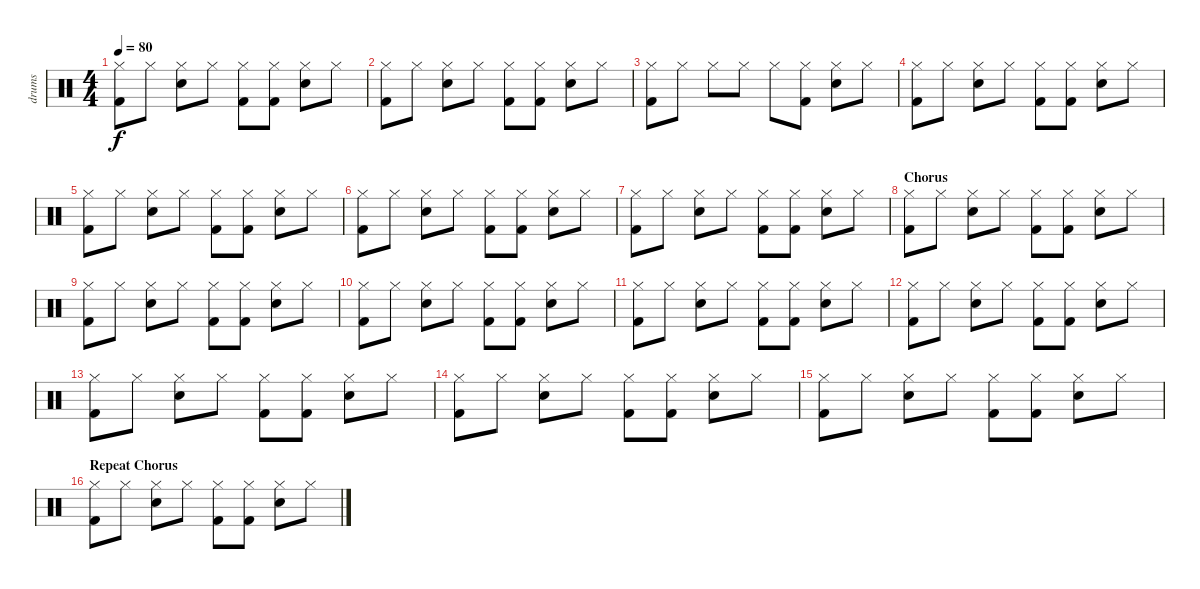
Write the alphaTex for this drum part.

\track ("drums" "drums") {instrument percussion}
\staff {score}
\articulation defaults
\ts (4 4)
\tempo 80
\clef neutral
\ks c
("Hi-Hat (closed)" "Kick (hit) 2").8{dy f} "Hi-Hat (closed)".8 ("Hi-Hat (closed)" "Electric Snare (hit)").8 "Hi-Hat (closed)".8 ("Hi-Hat (closed)" "Kick (hit) 2").8 ("Hi-Hat (closed)" "Kick (hit) 2").8 ("Hi-Hat (closed)" "Electric Snare (hit)").8 "Hi-Hat (closed)".8 |
("Hi-Hat (closed)" "Kick (hit) 2").8 "Hi-Hat (closed)".8 ("Hi-Hat (closed)" "Electric Snare (hit)").8 "Hi-Hat (closed)".8 ("Hi-Hat (closed)" "Kick (hit) 2").8 ("Hi-Hat (closed)" "Kick (hit) 2").8 ("Hi-Hat (closed)" "Electric Snare (hit)").8 "Hi-Hat (closed)".8 |
("Hi-Hat (closed)" "Kick (hit) 2").8 "Hi-Hat (closed)".8 "Hi-Hat (closed)".8 "Hi-Hat (closed)".8 "Hi-Hat (closed)".8 ("Hi-Hat (closed)" "Kick (hit) 2").8 ("Hi-Hat (closed)" "Electric Snare (hit)").8 "Hi-Hat (closed)".8 |
("Hi-Hat (closed)" "Kick (hit) 2").8 "Hi-Hat (closed)".8 ("Hi-Hat (closed)" "Electric Snare (hit)").8 "Hi-Hat (closed)".8 ("Hi-Hat (closed)" "Kick (hit) 2").8 ("Hi-Hat (closed)" "Kick (hit) 2").8 ("Hi-Hat (closed)" "Electric Snare (hit)").8 "Hi-Hat (closed)".8 |
("Hi-Hat (closed)" "Kick (hit) 2").8 "Hi-Hat (closed)".8 ("Hi-Hat (closed)" "Electric Snare (hit)").8 "Hi-Hat (closed)".8 ("Hi-Hat (closed)" "Kick (hit) 2").8 ("Hi-Hat (closed)" "Kick (hit) 2").8 ("Hi-Hat (closed)" "Electric Snare (hit)").8 "Hi-Hat (closed)".8 |
("Hi-Hat (closed)" "Kick (hit) 2").8 "Hi-Hat (closed)".8 ("Hi-Hat (closed)" "Electric Snare (hit)").8 "Hi-Hat (closed)".8 ("Hi-Hat (closed)" "Kick (hit) 2").8 ("Hi-Hat (closed)" "Kick (hit) 2").8 ("Hi-Hat (closed)" "Electric Snare (hit)").8 "Hi-Hat (closed)".8 |
("Hi-Hat (closed)" "Kick (hit) 2").8 "Hi-Hat (closed)".8 ("Hi-Hat (closed)" "Electric Snare (hit)").8 "Hi-Hat (closed)".8 ("Hi-Hat (closed)" "Kick (hit) 2").8 ("Hi-Hat (closed)" "Kick (hit) 2").8 ("Hi-Hat (closed)" "Electric Snare (hit)").8 "Hi-Hat (closed)".8 |
\section ("" "Chorus")
("Hi-Hat (closed)" "Kick (hit) 2").8 "Hi-Hat (closed)".8 ("Hi-Hat (closed)" "Electric Snare (hit)").8 "Hi-Hat (closed)".8 ("Hi-Hat (closed)" "Kick (hit) 2").8 ("Hi-Hat (closed)" "Kick (hit) 2").8 ("Hi-Hat (closed)" "Electric Snare (hit)").8 "Hi-Hat (closed)".8 |
("Hi-Hat (closed)" "Kick (hit) 2").8 "Hi-Hat (closed)".8 ("Hi-Hat (closed)" "Electric Snare (hit)").8 "Hi-Hat (closed)".8 ("Hi-Hat (closed)" "Kick (hit) 2").8 ("Hi-Hat (closed)" "Kick (hit) 2").8 ("Hi-Hat (closed)" "Electric Snare (hit)").8 "Hi-Hat (closed)".8 |
("Hi-Hat (closed)" "Kick (hit) 2").8 "Hi-Hat (closed)".8 ("Hi-Hat (closed)" "Electric Snare (hit)").8 "Hi-Hat (closed)".8 ("Hi-Hat (closed)" "Kick (hit) 2").8 ("Hi-Hat (closed)" "Kick (hit) 2").8 ("Hi-Hat (closed)" "Electric Snare (hit)").8 "Hi-Hat (closed)".8 |
("Hi-Hat (closed)" "Kick (hit) 2").8 "Hi-Hat (closed)".8 ("Hi-Hat (closed)" "Electric Snare (hit)").8 "Hi-Hat (closed)".8 ("Hi-Hat (closed)" "Kick (hit) 2").8 ("Hi-Hat (closed)" "Kick (hit) 2").8 ("Hi-Hat (closed)" "Electric Snare (hit)").8 "Hi-Hat (closed)".8 |
("Hi-Hat (closed)" "Kick (hit) 2").8 "Hi-Hat (closed)".8 ("Hi-Hat (closed)" "Electric Snare (hit)").8 "Hi-Hat (closed)".8 ("Hi-Hat (closed)" "Kick (hit) 2").8 ("Hi-Hat (closed)" "Kick (hit) 2").8 ("Hi-Hat (closed)" "Electric Snare (hit)").8 "Hi-Hat (closed)".8 |
("Hi-Hat (closed)" "Kick (hit) 2").8 "Hi-Hat (closed)".8 ("Hi-Hat (closed)" "Electric Snare (hit)").8 "Hi-Hat (closed)".8 ("Hi-Hat (closed)" "Kick (hit) 2").8 ("Hi-Hat (closed)" "Kick (hit) 2").8 ("Hi-Hat (closed)" "Electric Snare (hit)").8 "Hi-Hat (closed)".8 |
("Hi-Hat (closed)" "Kick (hit) 2").8 "Hi-Hat (closed)".8 ("Hi-Hat (closed)" "Electric Snare (hit)").8 "Hi-Hat (closed)".8 ("Hi-Hat (closed)" "Kick (hit) 2").8 ("Hi-Hat (closed)" "Kick (hit) 2").8 ("Hi-Hat (closed)" "Electric Snare (hit)").8 "Hi-Hat (closed)".8 |
("Hi-Hat (closed)" "Kick (hit) 2").8 "Hi-Hat (closed)".8 ("Hi-Hat (closed)" "Electric Snare (hit)").8 "Hi-Hat (closed)".8 ("Hi-Hat (closed)" "Kick (hit) 2").8 ("Hi-Hat (closed)" "Kick (hit) 2").8 ("Hi-Hat (closed)" "Electric Snare (hit)").8 "Hi-Hat (closed)".8 |
\section ("" "Repeat Chorus")
("Hi-Hat (closed)" "Kick (hit) 2").8 "Hi-Hat (closed)".8 ("Hi-Hat (closed)" "Electric Snare (hit)").8 "Hi-Hat (closed)".8 ("Hi-Hat (closed)" "Kick (hit) 2").8 ("Hi-Hat (closed)" "Kick (hit) 2").8 ("Hi-Hat (closed)" "Electric Snare (hit)").8 "Hi-Hat (closed)".8
